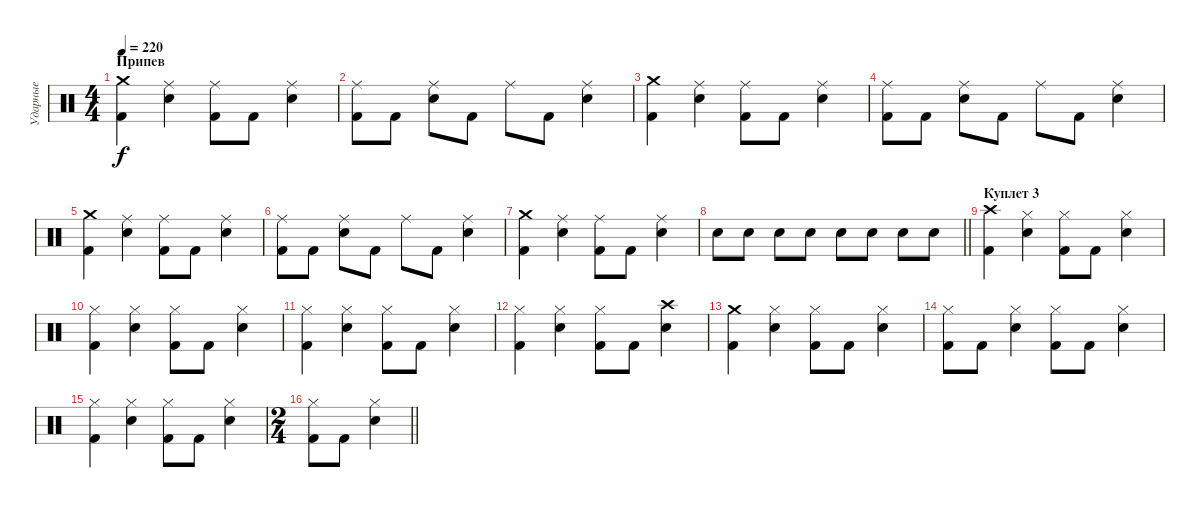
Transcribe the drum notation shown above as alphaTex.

\track ("Ударные" "Ударные") {instrument percussion}
\staff {score}
\articulation defaults
\ts (4 4)
\section ("" "Припев")
\tempo 220
\clef neutral
\ks c
("Crash medium (hit)" "Kick (hit) 2").4{dy f} ("Ride (middle)" "Snare (hit) 2").4 ("Ride (middle)" "Kick (hit) 2").8 "Kick (hit) 2".8 ("Ride (middle)" "Snare (hit) 2").4 |
("Ride (middle)" "Kick (hit) 2").8 "Kick (hit) 2".8 ("Ride (middle)" "Snare (hit) 2").8 "Kick (hit) 2".8 "Ride (middle)".8 "Kick (hit) 2".8 ("Ride (middle)" "Snare (hit) 2").4 |
("Crash medium (hit)" "Kick (hit) 2").4 ("Ride (middle)" "Snare (hit) 2").4 ("Ride (middle)" "Kick (hit) 2").8 "Kick (hit) 2".8 ("Ride (middle)" "Snare (hit) 2").4 |
("Ride (middle)" "Kick (hit) 2").8 "Kick (hit) 2".8 ("Ride (middle)" "Snare (hit) 2").8 "Kick (hit) 2".8 "Ride (middle)".8 "Kick (hit) 2".8 ("Ride (middle)" "Snare (hit) 2").4 |
("Crash medium (hit)" "Kick (hit) 2").4 ("Ride (middle)" "Snare (hit) 2").4 ("Ride (middle)" "Kick (hit) 2").8 "Kick (hit) 2".8 ("Ride (middle)" "Snare (hit) 2").4 |
("Ride (middle)" "Kick (hit) 2").8 "Kick (hit) 2".8 ("Ride (middle)" "Snare (hit) 2").8 "Kick (hit) 2".8 "Ride (middle)".8 "Kick (hit) 2".8 ("Ride (middle)" "Snare (hit) 2").4 |
("Crash medium (hit)" "Kick (hit) 2").4 ("Ride (middle)" "Snare (hit) 2").4 ("Ride (middle)" "Kick (hit) 2").8 "Kick (hit) 2".8 ("Ride (middle)" "Snare (hit) 2").4 |
\barLineRight lightlight "Snare (hit) 2".8 "Snare (hit) 2".8 "Snare (hit) 2".8 "Snare (hit) 2".8 "Snare (hit) 2".8 "Snare (hit) 2".8 "Snare (hit) 2".8 "Snare (hit) 2".8
|
\section ("" "Куплет 3")
("Crash high (hit)" "Kick (hit) 2").4 ("Hi-Hat (closed)" "Snare (hit) 2").4 ("Hi-Hat (closed)" "Kick (hit) 2").8 "Kick (hit) 2".8 ("Hi-Hat (closed)" "Snare (hit) 2").4 |
("Hi-Hat (closed)" "Kick (hit) 2").4 ("Hi-Hat (closed)" "Snare (hit) 2").4 ("Hi-Hat (closed)" "Kick (hit) 2").8 "Kick (hit) 2".8 ("Hi-Hat (closed)" "Snare (hit) 2").4 |
("Hi-Hat (closed)" "Kick (hit) 2").4 ("Hi-Hat (closed)" "Snare (hit) 2").4 ("Hi-Hat (closed)" "Kick (hit) 2").8 "Kick (hit) 2".8 ("Hi-Hat (closed)" "Snare (hit) 2").4 |
("Hi-Hat (closed)" "Kick (hit) 2").4 ("Hi-Hat (closed)" "Snare (hit) 2").4 ("Hi-Hat (closed)" "Kick (hit) 2").8 "Kick (hit) 2".8 ("Crash high (hit)" "Snare (hit) 2").4 |
("Crash medium (hit)" "Kick (hit) 2").4 ("Hi-Hat (closed)" "Snare (hit) 2").4 ("Hi-Hat (closed)" "Kick (hit) 2").8 "Kick (hit) 2".8 ("Hi-Hat (closed)" "Snare (hit) 2").4 |
("Hi-Hat (closed)" "Kick (hit) 2").8 "Kick (hit) 2".8 ("Hi-Hat (closed)" "Snare (hit) 2").4 ("Hi-Hat (closed)" "Kick (hit) 2").8 "Kick (hit) 2".8 ("Hi-Hat (closed)" "Snare (hit) 2").4 |
("Hi-Hat (closed)" "Kick (hit) 2").4 ("Hi-Hat (closed)" "Snare (hit) 2").4 ("Hi-Hat (closed)" "Kick (hit) 2").8 "Kick (hit) 2".8 ("Hi-Hat (closed)" "Snare (hit) 2").4 |
\ts (2 4)
\barLineRight lightlight
("Hi-Hat (closed)" "Kick (hit) 2").8 "Kick (hit) 2".8 ("Hi-Hat (closed)" "Snare (hit) 2").4
